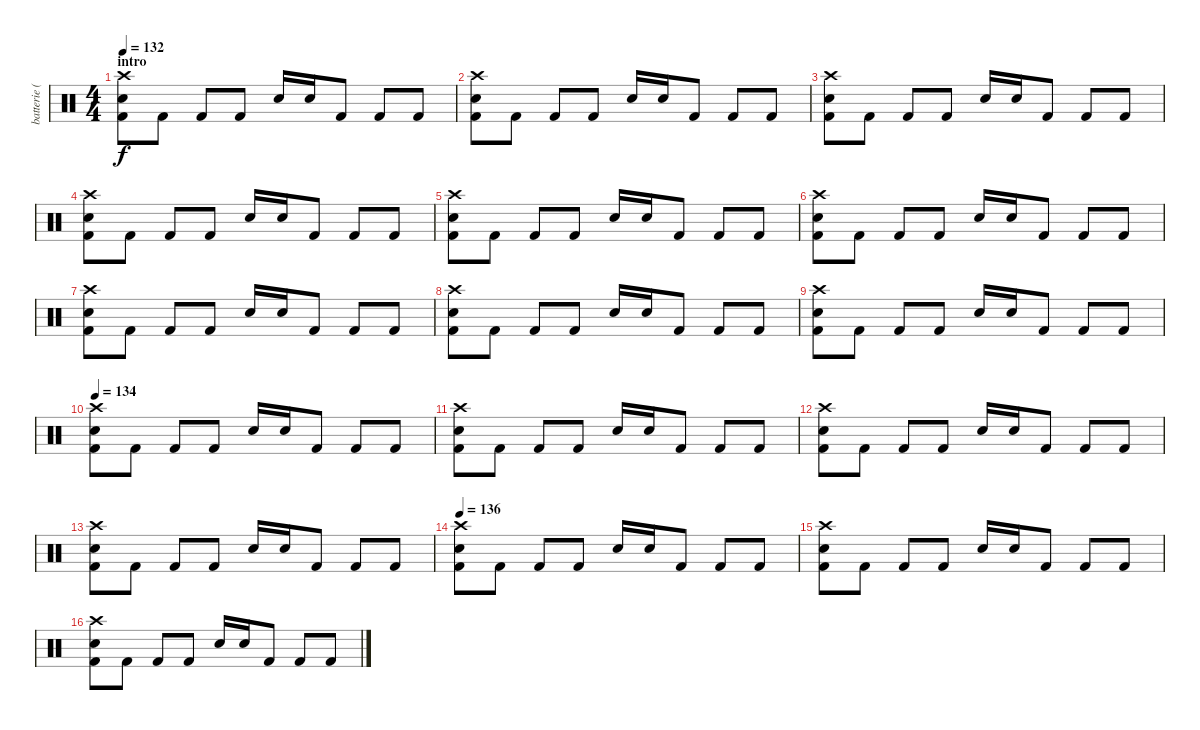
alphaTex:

\track ("batterie (J.Castillo)" "batterie (") {instrument percussion}
\staff {score}
\articulation defaults
\ts (4 4)
\section ("" "intro")
\tempo 132
\clef neutral
\ks c
("Electric Snare (hit)" "Kick (hit) 2" "Crash high (hit)").8{dy f} "Kick (hit) 2".8 "Kick (hit) 2".8 "Kick (hit) 2".8 "Electric Snare (hit)".16 "Electric Snare (hit)".16 "Kick (hit) 2".8 "Kick (hit) 2".8 "Kick (hit) 2".8 |
("Electric Snare (hit)" "Kick (hit) 2" "Crash high (hit)").8 "Kick (hit) 2".8 "Kick (hit) 2".8 "Kick (hit) 2".8 "Electric Snare (hit)".16 "Electric Snare (hit)".16 "Kick (hit) 2".8 "Kick (hit) 2".8 "Kick (hit) 2".8 |
("Electric Snare (hit)" "Kick (hit) 2" "Crash high (hit)").8 "Kick (hit) 2".8 "Kick (hit) 2".8 "Kick (hit) 2".8 "Electric Snare (hit)".16 "Electric Snare (hit)".16 "Kick (hit) 2".8 "Kick (hit) 2".8 "Kick (hit) 2".8 |
("Electric Snare (hit)" "Kick (hit) 2" "Crash high (hit)").8 "Kick (hit) 2".8 "Kick (hit) 2".8 "Kick (hit) 2".8 "Electric Snare (hit)".16 "Electric Snare (hit)".16 "Kick (hit) 2".8 "Kick (hit) 2".8 "Kick (hit) 2".8 |
("Electric Snare (hit)" "Kick (hit) 2" "Crash high (hit)").8 "Kick (hit) 2".8 "Kick (hit) 2".8 "Kick (hit) 2".8 "Electric Snare (hit)".16 "Electric Snare (hit)".16 "Kick (hit) 2".8 "Kick (hit) 2".8 "Kick (hit) 2".8 |
("Electric Snare (hit)" "Kick (hit) 2" "Crash high (hit)").8 "Kick (hit) 2".8 "Kick (hit) 2".8 "Kick (hit) 2".8 "Electric Snare (hit)".16 "Electric Snare (hit)".16 "Kick (hit) 2".8 "Kick (hit) 2".8 "Kick (hit) 2".8 |
("Electric Snare (hit)" "Kick (hit) 2" "Crash high (hit)").8 "Kick (hit) 2".8 "Kick (hit) 2".8 "Kick (hit) 2".8 "Electric Snare (hit)".16 "Electric Snare (hit)".16 "Kick (hit) 2".8 "Kick (hit) 2".8 "Kick (hit) 2".8 |
("Electric Snare (hit)" "Kick (hit) 2" "Crash high (hit)").8 "Kick (hit) 2".8 "Kick (hit) 2".8 "Kick (hit) 2".8 "Electric Snare (hit)".16 "Electric Snare (hit)".16 "Kick (hit) 2".8 "Kick (hit) 2".8 "Kick (hit) 2".8 |
("Electric Snare (hit)" "Kick (hit) 2" "Crash high (hit)").8 "Kick (hit) 2".8 "Kick (hit) 2".8 "Kick (hit) 2".8 "Electric Snare (hit)".16 "Electric Snare (hit)".16 "Kick (hit) 2".8 "Kick (hit) 2".8 "Kick (hit) 2".8 |
\tempo 134
("Electric Snare (hit)" "Kick (hit) 2" "Crash high (hit)").8 "Kick (hit) 2".8 "Kick (hit) 2".8 "Kick (hit) 2".8 "Electric Snare (hit)".16 "Electric Snare (hit)".16 "Kick (hit) 2".8 "Kick (hit) 2".8 "Kick (hit) 2".8 |
("Electric Snare (hit)" "Kick (hit) 2" "Crash high (hit)").8 "Kick (hit) 2".8 "Kick (hit) 2".8 "Kick (hit) 2".8 "Electric Snare (hit)".16 "Electric Snare (hit)".16 "Kick (hit) 2".8 "Kick (hit) 2".8 "Kick (hit) 2".8 |
("Electric Snare (hit)" "Kick (hit) 2" "Crash high (hit)").8 "Kick (hit) 2".8 "Kick (hit) 2".8 "Kick (hit) 2".8 "Electric Snare (hit)".16 "Electric Snare (hit)".16 "Kick (hit) 2".8 "Kick (hit) 2".8 "Kick (hit) 2".8 |
("Electric Snare (hit)" "Kick (hit) 2" "Crash high (hit)").8 "Kick (hit) 2".8 "Kick (hit) 2".8 "Kick (hit) 2".8 "Electric Snare (hit)".16 "Electric Snare (hit)".16 "Kick (hit) 2".8 "Kick (hit) 2".8 "Kick (hit) 2".8 |
\tempo 136
("Electric Snare (hit)" "Kick (hit) 2" "Crash high (hit)").8 "Kick (hit) 2".8 "Kick (hit) 2".8 "Kick (hit) 2".8 "Electric Snare (hit)".16 "Electric Snare (hit)".16 "Kick (hit) 2".8 "Kick (hit) 2".8 "Kick (hit) 2".8 |
("Electric Snare (hit)" "Kick (hit) 2" "Crash high (hit)").8 "Kick (hit) 2".8 "Kick (hit) 2".8 "Kick (hit) 2".8 "Electric Snare (hit)".16 "Electric Snare (hit)".16 "Kick (hit) 2".8 "Kick (hit) 2".8 "Kick (hit) 2".8 |
("Electric Snare (hit)" "Kick (hit) 2" "Crash high (hit)").8 "Kick (hit) 2".8 "Kick (hit) 2".8 "Kick (hit) 2".8 "Electric Snare (hit)".16 "Electric Snare (hit)".16 "Kick (hit) 2".8 "Kick (hit) 2".8 "Kick (hit) 2".8
